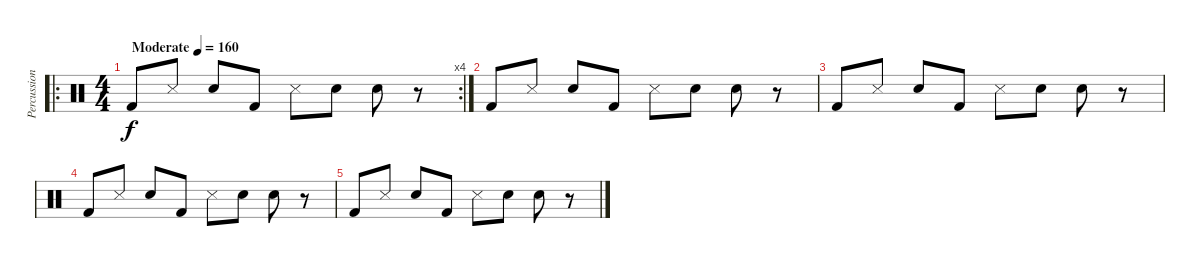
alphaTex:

\track ("Percussion" "Percussion") {instrument percussion}
\staff {score}
\articulation defaults
\ro
\rc 4
\ts (4 4)
\tempo (160 "Moderate")
\clef neutral
\ks c "Kick (hit) 2".8{dy f} "Snare (side stick) 3".8 "Hand Clap (hit)".8 "Kick (hit) 2".8 "Snare (side stick) 3".8 "Snare (hit) 2".8 "Hand Clap (hit)".8
r.8 |
"Kick (hit) 2".8 "Snare (side stick) 3".8 "Hand Clap (hit)".8 "Kick (hit) 2".8 "Snare (side stick) 3".8 "Snare (hit) 2".8 "Hand Clap (hit)".8 r.8 |
"Kick (hit) 2".8 "Snare (side stick) 3".8 "Hand Clap (hit)".8 "Kick (hit) 2".8 "Snare (side stick) 3".8 "Snare (hit) 2".8 "Hand Clap (hit)".8 r.8 |
"Kick (hit) 2".8 "Snare (side stick) 3".8 "Hand Clap (hit)".8 "Kick (hit) 2".8 "Snare (side stick) 3".8 "Snare (hit) 2".8 "Hand Clap (hit)".8 r.8 |
"Kick (hit) 2".8 "Snare (side stick) 3".8 "Hand Clap (hit)".8 "Kick (hit) 2".8 "Snare (side stick) 3".8 "Snare (hit) 2".8 "Hand Clap (hit)".8 r.8
